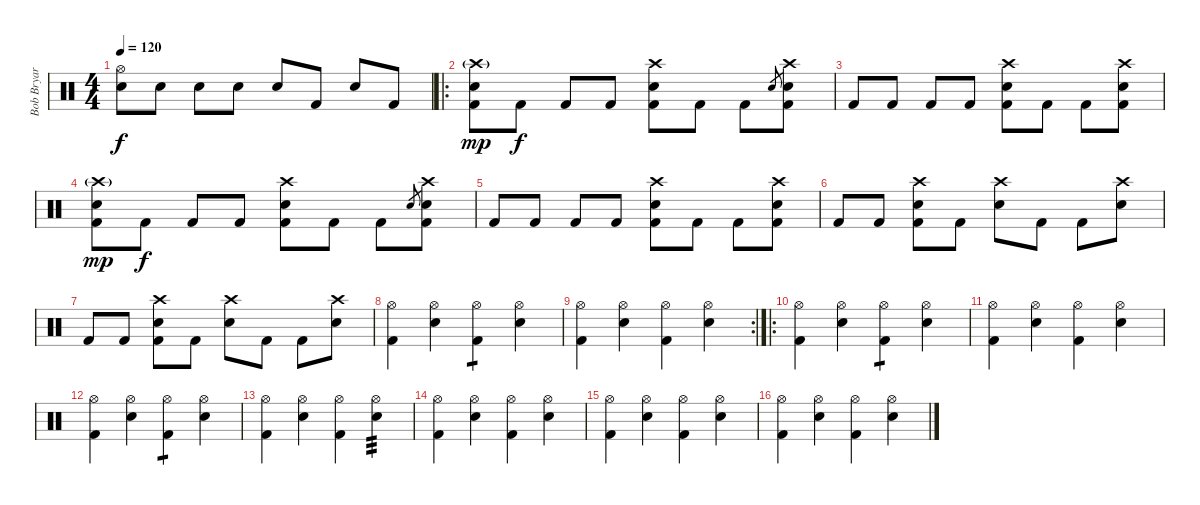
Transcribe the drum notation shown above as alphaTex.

\track ("Bob Bryar [Drums]" "Bob Bryar ") {instrument percussion}
\staff {score}
\articulation defaults
\ts (4 4)
\tempo 120
\clef neutral
\ks c
("Hi-Hat (open)" "Electric Snare (hit)").8{dy f volume 8} "Electric Snare (hit)".8{volume 13} "Electric Snare (hit)".8 "Electric Snare (hit)".8 "Electric Snare (hit)".8 "Kick (hit) 2".8 "Electric Snare (hit)".8 "Kick (hit) 2".8 |
\ro
("Crash high (hit)"{g} "Electric Snare (hit)" "Kick (hit) 2").8{dy mp} "Kick (hit) 2".8{dy f} "Kick (hit) 2".8 "Kick (hit) 2".8 ("Crash high (hit)" "Electric Snare (hit)" "Kick (hit) 2").8 "Kick (hit) 2".8 "Kick (hit) 2".8 "Electric Snare (hit)".8{gr} ("Crash high (hit)" "Electric Snare (hit)" "Kick (hit) 2").8 |
"Kick (hit) 2".8 "Kick (hit) 2".8 "Kick (hit) 2".8 "Kick (hit) 2".8 ("Crash high (hit)" "Electric Snare (hit)" "Kick (hit) 2").8 "Kick (hit) 2".8 "Kick (hit) 2".8 ("Crash high (hit)" "Electric Snare (hit)" "Kick (hit) 2").8 |
("Crash high (hit)"{g} "Electric Snare (hit)" "Kick (hit) 2").8{dy mp} "Kick (hit) 2".8{dy f} "Kick (hit) 2".8 "Kick (hit) 2".8 ("Crash high (hit)" "Electric Snare (hit)" "Kick (hit) 2").8 "Kick (hit) 2".8 "Kick (hit) 2".8 "Electric Snare (hit)".8{gr} ("Crash high (hit)" "Electric Snare (hit)" "Kick (hit) 2").8 |
"Kick (hit) 2".8 "Kick (hit) 2".8 "Kick (hit) 2".8 "Kick (hit) 2".8 ("Crash high (hit)" "Electric Snare (hit)" "Kick (hit) 2").8 "Kick (hit) 2".8 "Kick (hit) 2".8 ("Crash high (hit)" "Electric Snare (hit)" "Kick (hit) 2").8 |
"Kick (hit) 2".8 "Kick (hit) 2".8 ("Crash high (hit)" "Electric Snare (hit)" "Kick (hit) 2").8 "Kick (hit) 2".8 ("Crash high (hit)" "Electric Snare (hit)").8 "Kick (hit) 2".8 "Kick (hit) 2".8 ("Crash high (hit)" "Electric Snare (hit)").8 |
"Kick (hit) 2".8 "Kick (hit) 2".8 ("Crash high (hit)" "Electric Snare (hit)" "Kick (hit) 2").8 "Kick (hit) 2".8 ("Crash high (hit)" "Electric Snare (hit)").8 "Kick (hit) 2".8 "Kick (hit) 2".8 ("Crash high (hit)" "Electric Snare (hit)").8 |
("Hi-Hat (open)" "Kick (hit) 2").4 ("Hi-Hat (open)" "Electric Snare (hit)").4 ("Hi-Hat (open)" "Kick (hit) 2").4{tp 1} ("Hi-Hat (open)" "Electric Snare (hit)").4 |
\rc 2
("Hi-Hat (open)" "Kick (hit) 2").4 ("Hi-Hat (open)" "Electric Snare (hit)").4 ("Hi-Hat (open)" "Kick (hit) 2").4 ("Hi-Hat (open)" "Electric Snare (hit)").4 |
\ro
("Hi-Hat (open)" "Kick (hit) 2").4 ("Hi-Hat (open)" "Electric Snare (hit)").4 ("Hi-Hat (open)" "Kick (hit) 2").4{tp 1} ("Hi-Hat (open)" "Electric Snare (hit)").4 |
("Hi-Hat (open)" "Kick (hit) 2").4 ("Hi-Hat (open)" "Electric Snare (hit)").4 ("Hi-Hat (open)" "Kick (hit) 2").4 ("Hi-Hat (open)" "Electric Snare (hit)").4 |
("Hi-Hat (open)" "Kick (hit) 2").4 ("Hi-Hat (open)" "Electric Snare (hit)").4 ("Hi-Hat (open)" "Kick (hit) 2").4{tp 1} ("Hi-Hat (open)" "Electric Snare (hit)").4 |
("Hi-Hat (open)" "Kick (hit) 2").4 ("Hi-Hat (open)" "Electric Snare (hit)").4 ("Hi-Hat (open)" "Kick (hit) 2").4 ("Hi-Hat (open)" "Electric Snare (hit)").4{tp 3} |
("Hi-Hat (open)" "Kick (hit) 2").4 ("Hi-Hat (open)" "Electric Snare (hit)").4 ("Hi-Hat (open)" "Kick (hit) 2").4 ("Hi-Hat (open)" "Electric Snare (hit)").4 |
("Hi-Hat (open)" "Kick (hit) 2").4 ("Hi-Hat (open)" "Electric Snare (hit)").4 ("Hi-Hat (open)" "Kick (hit) 2").4 ("Hi-Hat (open)" "Electric Snare (hit)").4 |
("Hi-Hat (open)" "Kick (hit) 2").4 ("Hi-Hat (open)" "Electric Snare (hit)").4 ("Hi-Hat (open)" "Kick (hit) 2").4 ("Hi-Hat (open)" "Electric Snare (hit)").4
